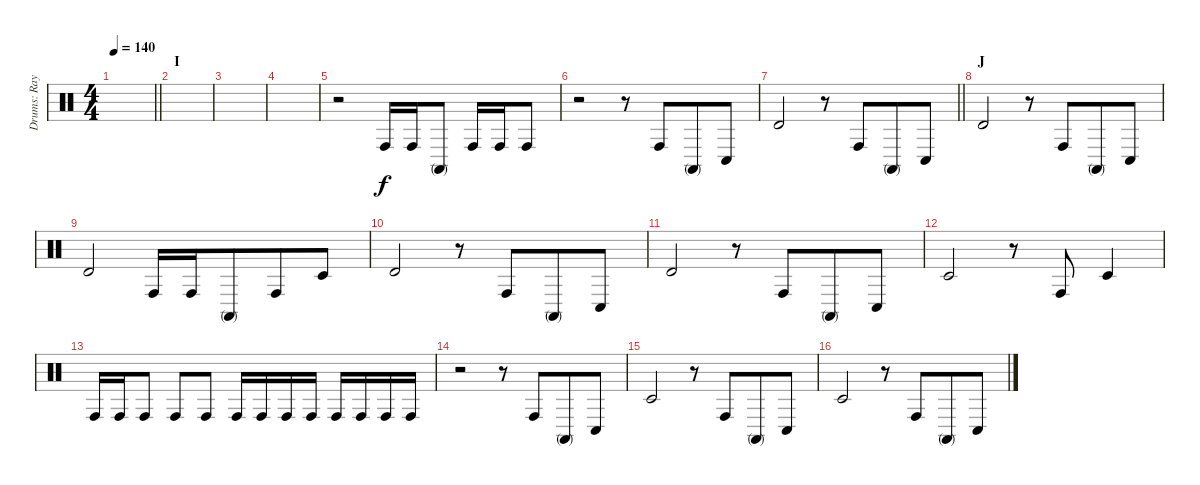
\track ("Drums: Ray Cooper" "Drums: Ray") {instrument percussion}
\staff {score}
\articulation defaults
\ts (4 4)
\tempo 140
\clef neutral
\barLineRight lightlight
\ks c
|
\section ("" "I")
|
|
|
r.2 "Conga high (hit)".16 "Conga high (hit)".16 "Conga high (mute)".8 "Conga high (hit)".16 "Conga high (hit)".16 "Conga high (hit)".8 |
r.2 r.8 "Conga high (hit)".8{beam merge} "Conga high (mute)".8 "Conga low (hit)".8 |
\barLineRight lightlight "Timbale high (hit)".2
r.8 "Conga high (hit)".8{beam merge} "Conga high (mute)".8 "Conga low (hit)".8 |
\section ("" "J")
"Timbale high (hit)".2 r.8 "Conga high (hit)".8{beam merge} "Conga high (mute)".8 "Conga low (hit)".8 |
"Timbale high (hit)".2 "Conga high (hit)".16 "Conga high (hit)".16 "Conga high (mute)".8{beam merge} "Conga high (hit)".8 "Timbale low (hit)".8 |
"Timbale high (hit)".2 r.8 "Conga high (hit)".8{beam merge} "Conga high (mute)".8 "Conga low (hit)".8 |
"Timbale high (hit)".2 r.8 "Conga high (hit)".8{beam merge} "Conga high (mute)".8 "Conga low (hit)".8 |
"Timbale low (hit)".2 r.8 "Conga high (hit)".8 "Timbale low (hit)".4 |
"Conga high (hit)".16 "Conga high (hit)".16 "Conga high (hit)".8 "Conga high (hit)".8 "Conga high (hit)".8 "Conga high (hit)".16 "Conga high (hit)".16 "Conga high (hit)".16 "Conga high (hit)".16 "Conga high (hit)".16 "Conga high (hit)".16 "Conga high (hit)".16 "Conga high (hit)".16 |
r.2 r.8 "Conga high (hit)".8{beam merge} "Conga high (mute)".8 "Conga low (hit)".8 |
"Timbale low (hit)".2 r.8 "Conga high (hit)".8{beam merge} "Conga high (mute)".8 "Conga low (hit)".8 |
"Timbale low (hit)".2 r.8 "Conga high (hit)".8{beam merge} "Conga high (mute)".8 "Conga low (hit)".8
